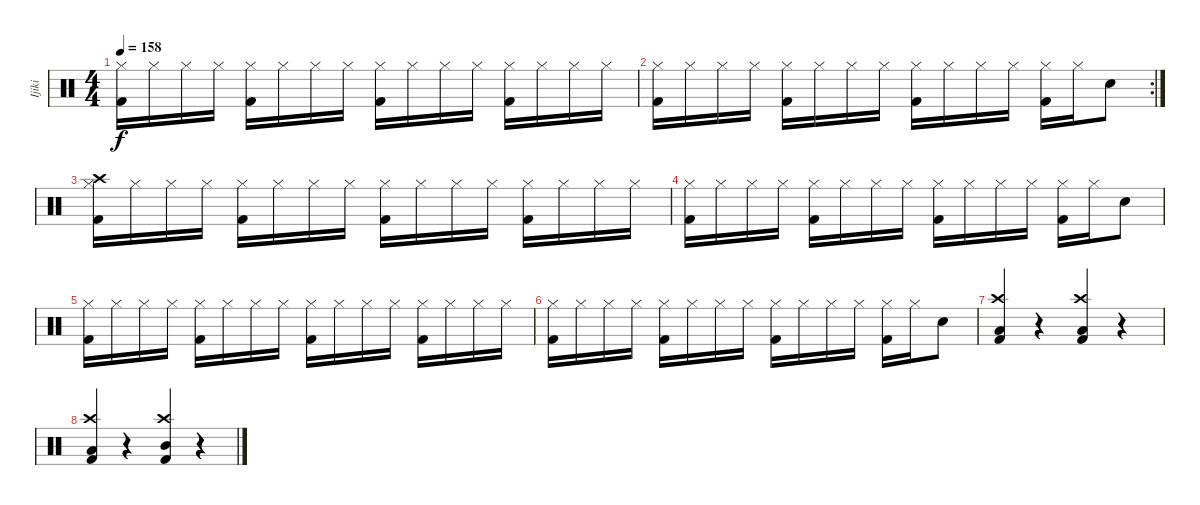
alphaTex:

\track ("Ijiki" "Ijiki") {instrument percussion}
\staff {score}
\articulation defaults
\ts (4 4)
\tempo 158
\clef neutral
\ks c
("Hi-Hat (closed)" "Kick (hit) 2").16{dy f} "Hi-Hat (closed)".16 "Hi-Hat (closed)".16 "Hi-Hat (closed)".16 ("Hi-Hat (closed)" "Kick (hit) 2").16 "Hi-Hat (closed)".16 "Hi-Hat (closed)".16 "Hi-Hat (closed)".16 ("Hi-Hat (closed)" "Kick (hit) 2").16 "Hi-Hat (closed)".16 "Hi-Hat (closed)".16 "Hi-Hat (closed)".16 ("Hi-Hat (closed)" "Kick (hit) 2").16 "Hi-Hat (closed)".16 "Hi-Hat (closed)".16 "Hi-Hat (closed)".16 |
\rc 2
("Hi-Hat (closed)" "Kick (hit) 2").16 "Hi-Hat (closed)".16 "Hi-Hat (closed)".16 "Hi-Hat (closed)".16 ("Hi-Hat (closed)" "Kick (hit) 2").16 "Hi-Hat (closed)".16 "Hi-Hat (closed)".16 "Hi-Hat (closed)".16 ("Hi-Hat (closed)" "Kick (hit) 2").16 "Hi-Hat (closed)".16 "Hi-Hat (closed)".16 "Hi-Hat (closed)".16 ("Hi-Hat (closed)" "Kick (hit) 2").16 "Hi-Hat (closed)".16 "Snare (hit) 2".8 |
("Hi-Hat (closed)" "Kick (hit) 2" "Crash high (hit)").16 "Hi-Hat (closed)".16 "Hi-Hat (closed)".16 "Hi-Hat (closed)".16 ("Hi-Hat (closed)" "Kick (hit) 2").16 "Hi-Hat (closed)".16 "Hi-Hat (closed)".16 "Hi-Hat (closed)".16 ("Hi-Hat (closed)" "Kick (hit) 2").16 "Hi-Hat (closed)".16 "Hi-Hat (closed)".16 "Hi-Hat (closed)".16 ("Hi-Hat (closed)" "Kick (hit) 2").16 "Hi-Hat (closed)".16 "Hi-Hat (closed)".16 "Hi-Hat (closed)".16 |
("Hi-Hat (closed)" "Kick (hit) 2").16 "Hi-Hat (closed)".16 "Hi-Hat (closed)".16 "Hi-Hat (closed)".16 ("Hi-Hat (closed)" "Kick (hit) 2").16 "Hi-Hat (closed)".16 "Hi-Hat (closed)".16 "Hi-Hat (closed)".16 ("Hi-Hat (closed)" "Kick (hit) 2").16 "Hi-Hat (closed)".16 "Hi-Hat (closed)".16 "Hi-Hat (closed)".16 ("Hi-Hat (closed)" "Kick (hit) 2").16 "Hi-Hat (closed)".16 "Snare (hit) 2".8 |
("Hi-Hat (closed)" "Kick (hit) 2").16 "Hi-Hat (closed)".16 "Hi-Hat (closed)".16 "Hi-Hat (closed)".16 ("Hi-Hat (closed)" "Kick (hit) 2").16 "Hi-Hat (closed)".16 "Hi-Hat (closed)".16 "Hi-Hat (closed)".16 ("Hi-Hat (closed)" "Kick (hit) 2").16 "Hi-Hat (closed)".16 "Hi-Hat (closed)".16 "Hi-Hat (closed)".16 ("Hi-Hat (closed)" "Kick (hit) 2").16 "Hi-Hat (closed)".16 "Hi-Hat (closed)".16 "Hi-Hat (closed)".16 |
("Hi-Hat (closed)" "Kick (hit) 2").16 "Hi-Hat (closed)".16 "Hi-Hat (closed)".16 "Hi-Hat (closed)".16 ("Hi-Hat (closed)" "Kick (hit) 2").16 "Hi-Hat (closed)".16 "Hi-Hat (closed)".16 "Hi-Hat (closed)".16 ("Hi-Hat (closed)" "Kick (hit) 2").16 "Hi-Hat (closed)".16 "Hi-Hat (closed)".16 "Hi-Hat (closed)".16 ("Hi-Hat (closed)" "Kick (hit) 2").16 "Hi-Hat (closed)".16 "Snare (hit) 2".8 |
("Low Tom (hit)" "Kick (hit) 2" "Crash high (hit)").4 r.4 ("Low Tom (hit)" "Kick (hit) 2" "Crash high (hit)").4 r.4 |
("Low Tom (hit)" "Kick (hit) 2" "Crash high (hit)").4 r.4 ("Mid Tom (hit)" "Kick (hit) 2" "Crash high (hit)").4 r.4
